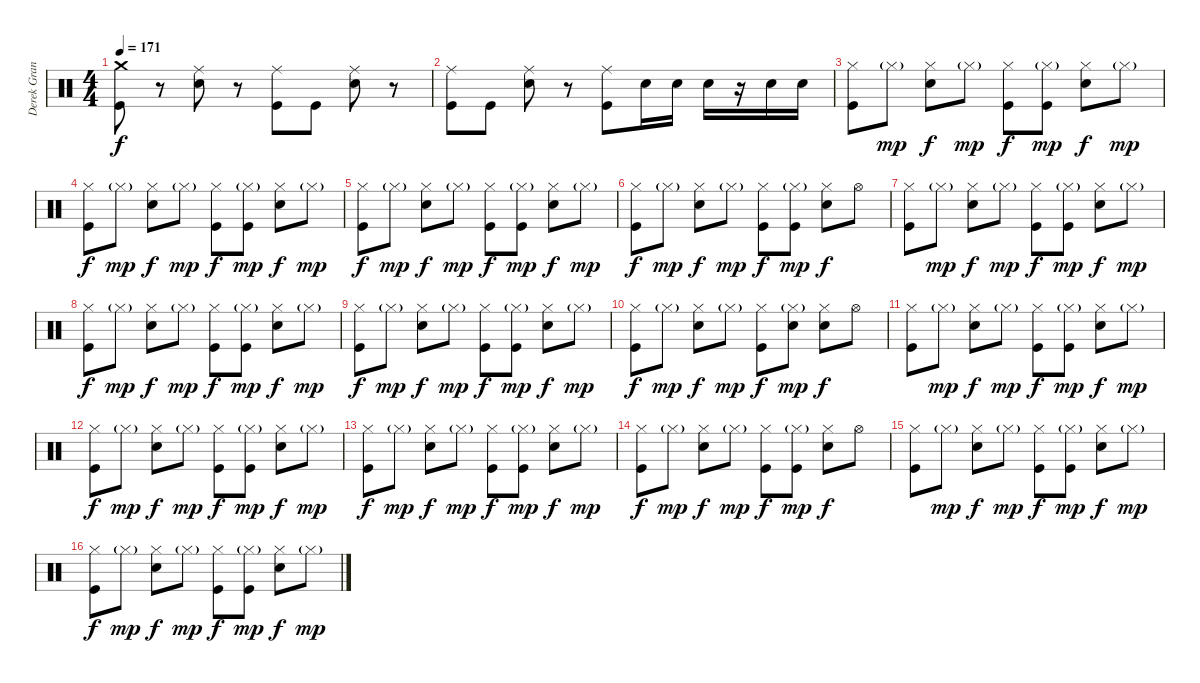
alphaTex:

\track ("Derek Grant" "Derek Gran") {instrument percussion}
\staff {score}
\articulation defaults
\ts (4 4)
\tempo 171
\clef neutral
\ks c
("Crash medium (hit)" "Kick (hit)").8{dy f} r.8 ("Ride (middle)" "Electric Snare (hit)").8 r.8 ("Ride (middle)" "Kick (hit)").8 "Kick (hit)".8 ("Ride (middle)" "Electric Snare (hit)").8 r.8 |
("Ride (middle)" "Kick (hit)").8 "Kick (hit)".8 ("Ride (middle)" "Electric Snare (hit)").8 r.8 ("Ride (middle)" "Kick (hit)").8 "Electric Snare (hit)".16 "Electric Snare (hit)".16 "Electric Snare (hit)".16 r.16 "Electric Snare (hit)".16 "Electric Snare (hit)".16 |
("Hi-Hat (closed)" "Kick (hit)").8 "Hi-Hat (closed)"{g}.8{dy mp} ("Hi-Hat (closed)" "Electric Snare (hit)").8{dy f} "Hi-Hat (closed)"{g}.8{dy mp} ("Hi-Hat (closed)" "Kick (hit)").8{dy f} ("Hi-Hat (closed)"{g} "Kick (hit)").8{dy mp} ("Hi-Hat (closed)" "Electric Snare (hit)").8{dy f} "Hi-Hat (closed)"{g}.8{dy mp} |
("Hi-Hat (closed)" "Kick (hit)").8{dy f} "Hi-Hat (closed)"{g}.8{dy mp} ("Hi-Hat (closed)" "Electric Snare (hit)").8{dy f} "Hi-Hat (closed)"{g}.8{dy mp} ("Hi-Hat (closed)" "Kick (hit)").8{dy f} ("Hi-Hat (closed)"{g} "Kick (hit)").8{dy mp} ("Hi-Hat (closed)" "Electric Snare (hit)").8{dy f} "Hi-Hat (closed)"{g}.8{dy mp} |
("Hi-Hat (closed)" "Kick (hit)").8{dy f} "Hi-Hat (closed)"{g}.8{dy mp} ("Hi-Hat (closed)" "Electric Snare (hit)").8{dy f} "Hi-Hat (closed)"{g}.8{dy mp} ("Hi-Hat (closed)" "Kick (hit)").8{dy f} ("Hi-Hat (closed)"{g} "Kick (hit)").8{dy mp} ("Hi-Hat (closed)" "Electric Snare (hit)").8{dy f} "Hi-Hat (closed)"{g}.8{dy mp} |
("Hi-Hat (closed)" "Kick (hit)").8{dy f} "Hi-Hat (closed)"{g}.8{dy mp} ("Hi-Hat (closed)" "Electric Snare (hit)").8{dy f} "Hi-Hat (closed)"{g}.8{dy mp} ("Hi-Hat (closed)" "Kick (hit)").8{dy f} ("Hi-Hat (closed)"{g} "Kick (hit)").8{dy mp} ("Hi-Hat (closed)" "Electric Snare (hit)").8{dy f} "Hi-Hat (open)".8 |
("Hi-Hat (closed)" "Kick (hit)").8 "Hi-Hat (closed)"{g}.8{dy mp} ("Hi-Hat (closed)" "Electric Snare (hit)").8{dy f} "Hi-Hat (closed)"{g}.8{dy mp} ("Hi-Hat (closed)" "Kick (hit)").8{dy f} ("Hi-Hat (closed)"{g} "Kick (hit)").8{dy mp} ("Hi-Hat (closed)" "Electric Snare (hit)").8{dy f} "Hi-Hat (closed)"{g}.8{dy mp} |
("Hi-Hat (closed)" "Kick (hit)").8{dy f} "Hi-Hat (closed)"{g}.8{dy mp} ("Hi-Hat (closed)" "Electric Snare (hit)").8{dy f} "Hi-Hat (closed)"{g}.8{dy mp} ("Hi-Hat (closed)" "Kick (hit)").8{dy f} ("Hi-Hat (closed)"{g} "Kick (hit)").8{dy mp} ("Hi-Hat (closed)" "Electric Snare (hit)").8{dy f} "Hi-Hat (closed)"{g}.8{dy mp} |
("Hi-Hat (closed)" "Kick (hit)").8{dy f} "Hi-Hat (closed)"{g}.8{dy mp} ("Hi-Hat (closed)" "Electric Snare (hit)").8{dy f} "Hi-Hat (closed)"{g}.8{dy mp} ("Hi-Hat (closed)" "Kick (hit)").8{dy f} ("Hi-Hat (closed)"{g} "Kick (hit)").8{dy mp} ("Hi-Hat (closed)" "Electric Snare (hit)").8{dy f} "Hi-Hat (closed)"{g}.8{dy mp} |
("Hi-Hat (closed)" "Kick (hit)").8{dy f} "Hi-Hat (closed)"{g}.8{dy mp} ("Hi-Hat (closed)" "Electric Snare (hit)").8{dy f} "Hi-Hat (closed)"{g}.8{dy mp} ("Hi-Hat (closed)" "Kick (hit)").8{dy f} ("Hi-Hat (closed)"{g} "Electric Snare (hit)").8{dy mp} ("Hi-Hat (closed)" "Electric Snare (hit)").8{dy f} "Hi-Hat (open)".8 |
("Hi-Hat (closed)" "Kick (hit)").8 "Hi-Hat (closed)"{g}.8{dy mp} ("Hi-Hat (closed)" "Electric Snare (hit)").8{dy f} "Hi-Hat (closed)"{g}.8{dy mp} ("Hi-Hat (closed)" "Kick (hit)").8{dy f} ("Hi-Hat (closed)"{g} "Kick (hit)").8{dy mp} ("Hi-Hat (closed)" "Electric Snare (hit)").8{dy f} "Hi-Hat (closed)"{g}.8{dy mp} |
("Hi-Hat (closed)" "Kick (hit)").8{dy f} "Hi-Hat (closed)"{g}.8{dy mp} ("Hi-Hat (closed)" "Electric Snare (hit)").8{dy f} "Hi-Hat (closed)"{g}.8{dy mp} ("Hi-Hat (closed)" "Kick (hit)").8{dy f} ("Hi-Hat (closed)"{g} "Kick (hit)").8{dy mp} ("Hi-Hat (closed)" "Electric Snare (hit)").8{dy f} "Hi-Hat (closed)"{g}.8{dy mp} |
("Hi-Hat (closed)" "Kick (hit)").8{dy f} "Hi-Hat (closed)"{g}.8{dy mp} ("Hi-Hat (closed)" "Electric Snare (hit)").8{dy f} "Hi-Hat (closed)"{g}.8{dy mp} ("Hi-Hat (closed)" "Kick (hit)").8{dy f} ("Hi-Hat (closed)"{g} "Kick (hit)").8{dy mp} ("Hi-Hat (closed)" "Electric Snare (hit)").8{dy f} "Hi-Hat (closed)"{g}.8{dy mp} |
("Hi-Hat (closed)" "Kick (hit)").8{dy f} "Hi-Hat (closed)"{g}.8{dy mp} ("Hi-Hat (closed)" "Electric Snare (hit)").8{dy f} "Hi-Hat (closed)"{g}.8{dy mp} ("Hi-Hat (closed)" "Kick (hit)").8{dy f} ("Hi-Hat (closed)"{g} "Kick (hit)").8{dy mp} ("Hi-Hat (closed)" "Electric Snare (hit)").8{dy f} "Hi-Hat (open)".8 |
("Hi-Hat (closed)" "Kick (hit)").8 "Hi-Hat (closed)"{g}.8{dy mp} ("Hi-Hat (closed)" "Electric Snare (hit)").8{dy f} "Hi-Hat (closed)"{g}.8{dy mp} ("Hi-Hat (closed)" "Kick (hit)").8{dy f} ("Hi-Hat (closed)"{g} "Kick (hit)").8{dy mp} ("Hi-Hat (closed)" "Electric Snare (hit)").8{dy f} "Hi-Hat (closed)"{g}.8{dy mp} |
("Hi-Hat (closed)" "Kick (hit)").8{dy f} "Hi-Hat (closed)"{g}.8{dy mp} ("Hi-Hat (closed)" "Electric Snare (hit)").8{dy f} "Hi-Hat (closed)"{g}.8{dy mp} ("Hi-Hat (closed)" "Kick (hit)").8{dy f} ("Hi-Hat (closed)"{g} "Kick (hit)").8{dy mp} ("Hi-Hat (closed)" "Electric Snare (hit)").8{dy f} "Hi-Hat (closed)"{g}.8{dy mp}
